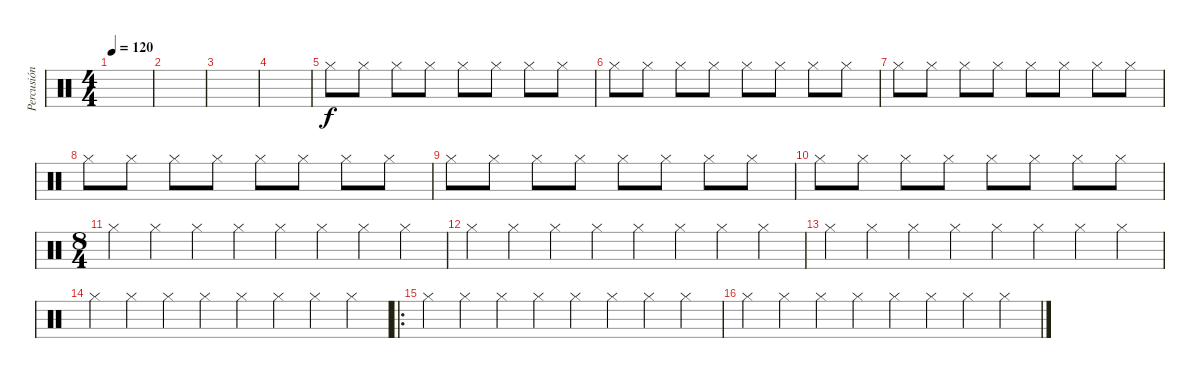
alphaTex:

\track ("Percusión" "Percusión") {instrument percussion}
\staff {score}
\articulation defaults
\ts (4 4)
\tempo 120
\clef neutral
\ks c
|
|
|
|
"Hi-Hat (closed)".8 "Hi-Hat (closed)".8 "Hi-Hat (closed)".8 "Hi-Hat (closed)".8 "Hi-Hat (closed)".8 "Hi-Hat (closed)".8 "Hi-Hat (closed)".8 "Hi-Hat (closed)".8 |
"Hi-Hat (closed)".8 "Hi-Hat (closed)".8 "Hi-Hat (closed)".8 "Hi-Hat (closed)".8 "Hi-Hat (closed)".8 "Hi-Hat (closed)".8 "Hi-Hat (closed)".8 "Hi-Hat (closed)".8 |
"Hi-Hat (closed)".8 "Hi-Hat (closed)".8 "Hi-Hat (closed)".8 "Hi-Hat (closed)".8 "Hi-Hat (closed)".8 "Hi-Hat (closed)".8 "Hi-Hat (closed)".8 "Hi-Hat (closed)".8 |
"Hi-Hat (closed)".8 "Hi-Hat (closed)".8 "Hi-Hat (closed)".8 "Hi-Hat (closed)".8 "Hi-Hat (closed)".8 "Hi-Hat (closed)".8 "Hi-Hat (closed)".8 "Hi-Hat (closed)".8 |
"Hi-Hat (closed)".8 "Hi-Hat (closed)".8 "Hi-Hat (closed)".8 "Hi-Hat (closed)".8 "Hi-Hat (closed)".8 "Hi-Hat (closed)".8 "Hi-Hat (closed)".8 "Hi-Hat (closed)".8 |
"Hi-Hat (closed)".8 "Hi-Hat (closed)".8 "Hi-Hat (closed)".8 "Hi-Hat (closed)".8 "Hi-Hat (closed)".8 "Hi-Hat (closed)".8 "Hi-Hat (closed)".8 "Hi-Hat (closed)".8 |
\ts (8 4)
"Hi-Hat (closed)".4 "Hi-Hat (closed)".4 "Hi-Hat (closed)".4 "Hi-Hat (closed)".4 "Hi-Hat (closed)".4 "Hi-Hat (closed)".4 "Hi-Hat (closed)".4 "Hi-Hat (closed)".4 |
"Hi-Hat (closed)".4 "Hi-Hat (closed)".4 "Hi-Hat (closed)".4 "Hi-Hat (closed)".4 "Hi-Hat (closed)".4 "Hi-Hat (closed)".4 "Hi-Hat (closed)".4 "Hi-Hat (closed)".4 |
"Hi-Hat (closed)".4 "Hi-Hat (closed)".4 "Hi-Hat (closed)".4 "Hi-Hat (closed)".4 "Hi-Hat (closed)".4 "Hi-Hat (closed)".4 "Hi-Hat (closed)".4 "Hi-Hat (closed)".4 |
"Hi-Hat (closed)".4 "Hi-Hat (closed)".4 "Hi-Hat (closed)".4 "Hi-Hat (closed)".4 "Hi-Hat (closed)".4 "Hi-Hat (closed)".4 "Hi-Hat (closed)".4 "Hi-Hat (closed)".4 |
\ro "Hi-Hat (closed)".4 "Hi-Hat (closed)".4 "Hi-Hat (closed)".4 "Hi-Hat (closed)".4 "Hi-Hat (closed)".4 "Hi-Hat (closed)".4 "Hi-Hat (closed)".4 "Hi-Hat (closed)".4
|
"Hi-Hat (closed)".4 "Hi-Hat (closed)".4 "Hi-Hat (closed)".4 "Hi-Hat (closed)".4 "Hi-Hat (closed)".4 "Hi-Hat (closed)".4 "Hi-Hat (closed)".4 "Hi-Hat (closed)".4
